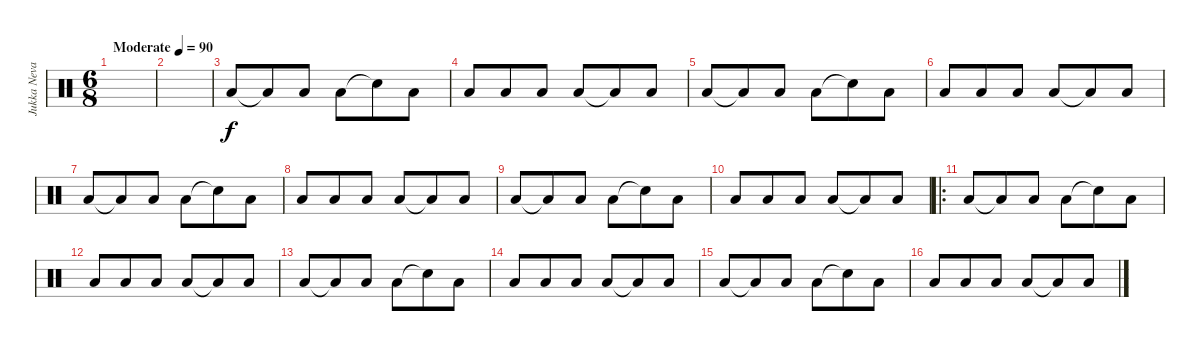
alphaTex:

\track ("Jukka Nevalainen" "Jukka Neva") {instrument percussion}
\staff {score}
\articulation defaults
\ts (6 8)
\tempo (90 "Moderate")
\clef neutral
\ks c
|
|
"Low Floor Tom (hit)".8 "Low Floor Tom (hit)"{t}.8 "Low Floor Tom (hit)".8 "Low Floor Tom (hit)".8 "Snare (hit)"{t}.8 "Low Floor Tom (hit)".8 |
"Low Floor Tom (hit)".8 "Low Floor Tom (hit)".8 "Low Floor Tom (hit)".8 "Low Floor Tom (hit)".8 "Low Floor Tom (hit)"{t}.8 "Low Floor Tom (hit)".8 |
"Low Floor Tom (hit)".8 "Low Floor Tom (hit)"{t}.8 "Low Floor Tom (hit)".8 "Low Floor Tom (hit)".8 "Snare (hit)"{t}.8 "Low Floor Tom (hit)".8 |
"Low Floor Tom (hit)".8 "Low Floor Tom (hit)".8 "Low Floor Tom (hit)".8 "Low Floor Tom (hit)".8 "Low Floor Tom (hit)"{t}.8 "Low Floor Tom (hit)".8 |
"Low Floor Tom (hit)".8 "Low Floor Tom (hit)"{t}.8 "Low Floor Tom (hit)".8 "Low Floor Tom (hit)".8 "Snare (hit)"{t}.8 "Low Floor Tom (hit)".8 |
"Low Floor Tom (hit)".8 "Low Floor Tom (hit)".8 "Low Floor Tom (hit)".8 "Low Floor Tom (hit)".8 "Low Floor Tom (hit)"{t}.8 "Low Floor Tom (hit)".8 |
"Low Floor Tom (hit)".8 "Low Floor Tom (hit)"{t}.8 "Low Floor Tom (hit)".8 "Low Floor Tom (hit)".8 "Snare (hit)"{t}.8 "Low Floor Tom (hit)".8 |
"Low Floor Tom (hit)".8 "Low Floor Tom (hit)".8 "Low Floor Tom (hit)".8 "Low Floor Tom (hit)".8 "Low Floor Tom (hit)"{t}.8 "Low Floor Tom (hit)".8 |
\ro "Low Floor Tom (hit)".8 "Low Floor Tom (hit)"{t}.8 "Low Floor Tom (hit)".8 "Low Floor Tom (hit)".8 "Snare (hit)"{t}.8 "Low Floor Tom (hit)".8
|
"Low Floor Tom (hit)".8 "Low Floor Tom (hit)".8 "Low Floor Tom (hit)".8 "Low Floor Tom (hit)".8 "Low Floor Tom (hit)"{t}.8 "Low Floor Tom (hit)".8 |
"Low Floor Tom (hit)".8 "Low Floor Tom (hit)"{t}.8 "Low Floor Tom (hit)".8 "Low Floor Tom (hit)".8 "Snare (hit)"{t}.8 "Low Floor Tom (hit)".8 |
"Low Floor Tom (hit)".8 "Low Floor Tom (hit)".8 "Low Floor Tom (hit)".8 "Low Floor Tom (hit)".8 "Low Floor Tom (hit)"{t}.8 "Low Floor Tom (hit)".8 |
"Low Floor Tom (hit)".8 "Low Floor Tom (hit)"{t}.8 "Low Floor Tom (hit)".8 "Low Floor Tom (hit)".8 "Snare (hit)"{t}.8 "Low Floor Tom (hit)".8 |
"Low Floor Tom (hit)".8 "Low Floor Tom (hit)".8 "Low Floor Tom (hit)".8 "Low Floor Tom (hit)".8 "Low Floor Tom (hit)"{t}.8 "Low Floor Tom (hit)".8
